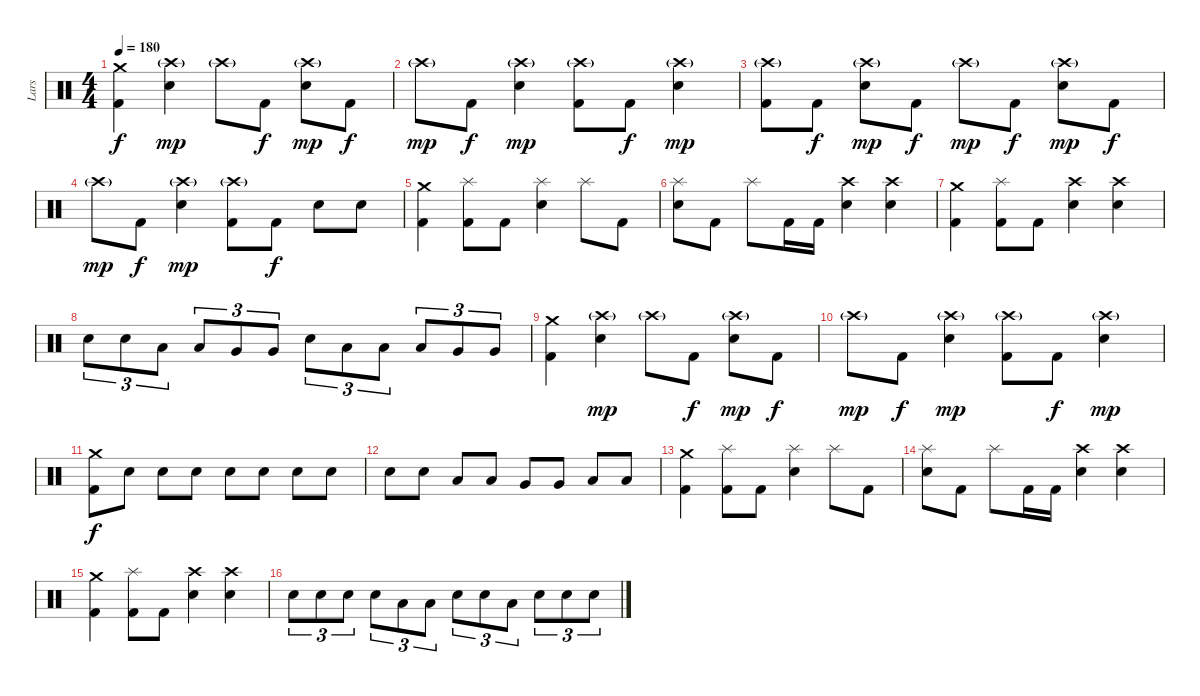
\track ("Lars" "Lars") {instrument percussion}
\staff {score}
\articulation defaults
\ts (4 4)
\tempo 180
\clef neutral
\ks c
("Crash medium (hit)" "Kick (hit) 2").4{dy f} ("Crash high (hit)"{g} "Electric Snare (hit)").4{dy mp} "Crash high (hit)"{g}.8 "Kick (hit) 2".8{dy f} ("Crash high (hit)"{g} "Electric Snare (hit)").8{dy mp} "Kick (hit) 2".8{dy f} |
"Crash high (hit)"{g}.8{dy mp} "Kick (hit) 2".8{dy f} ("Crash high (hit)"{g} "Electric Snare (hit)").4{dy mp} ("Crash high (hit)"{g} "Kick (hit) 2").8 "Kick (hit) 2".8{dy f} ("Crash high (hit)"{g} "Electric Snare (hit)").4{dy mp} |
("Crash high (hit)"{g} "Kick (hit) 2").8 "Kick (hit) 2".8{dy f} ("Crash high (hit)"{g} "Electric Snare (hit)").8{dy mp} "Kick (hit) 2".8{dy f} "Crash high (hit)"{g}.8{dy mp} "Kick (hit) 2".8{dy f} ("Crash high (hit)"{g} "Electric Snare (hit)").8{dy mp} "Kick (hit) 2".8{dy f} |
"Crash high (hit)"{g}.8{dy mp} "Kick (hit) 2".8{dy f} ("Crash high (hit)"{g} "Electric Snare (hit)").4{dy mp} ("Crash high (hit)"{g} "Kick (hit) 2").8 "Kick (hit) 2".8{dy f} "Electric Snare (hit)".8 "Electric Snare (hit)".8 |
("Crash medium (hit)" "Kick (hit) 2").4 ("Splash (hit)" "Kick (hit) 2").8 "Kick (hit) 2".8 ("Splash (hit)" "Electric Snare (hit)").4 "Splash (hit)".8 "Kick (hit) 2".8 |
("Splash (hit)" "Electric Snare (hit)").8 "Kick (hit) 2".8 "Splash (hit)".8 "Kick (hit) 2".16 "Kick (hit) 2".16 ("Crash high (hit)" "Electric Snare (hit)").4 ("Crash high (hit)" "Electric Snare (hit)").4 |
("Crash medium (hit)" "Kick (hit) 2").4 ("Splash (hit)" "Kick (hit) 2").8 "Kick (hit) 2".8 ("Crash high (hit)" "Electric Snare (hit)").4 ("Crash high (hit)" "Electric Snare (hit)").4 |
"Electric Snare (hit)".8{tu (3 2)} "Electric Snare (hit)".8{tu (3 2)} "Low Tom (hit)".8{tu (3 2)} "Low Tom (hit)".8{tu (3 2)} "Very Low Tom (hit)".8{tu (3 2)} "Very Low Tom (hit)".8{tu (3 2)} "Electric Snare (hit)".8{tu (3 2)} "Low Tom (hit)".8{tu (3 2)} "Low Tom (hit)".8{tu (3 2)} "Low Tom (hit)".8{tu (3 2)} "Very Low Tom (hit)".8{tu (3 2)} "Very Low Tom (hit)".8{tu (3 2)} |
("Crash medium (hit)" "Kick (hit) 2").4 ("Crash high (hit)"{g} "Electric Snare (hit)").4{dy mp} "Crash high (hit)"{g}.8 "Kick (hit) 2".8{dy f} ("Crash high (hit)"{g} "Electric Snare (hit)").8{dy mp} "Kick (hit) 2".8{dy f} |
"Crash high (hit)"{g}.8{dy mp} "Kick (hit) 2".8{dy f} ("Crash high (hit)"{g} "Electric Snare (hit)").4{dy mp} ("Crash high (hit)"{g} "Kick (hit) 2").8 "Kick (hit) 2".8{dy f} ("Crash high (hit)"{g} "Electric Snare (hit)").4{dy mp} |
("Crash medium (hit)" "Kick (hit) 2").8{dy f} "Electric Snare (hit)".8 "Electric Snare (hit)".8 "Electric Snare (hit)".8 "Electric Snare (hit)".8 "Electric Snare (hit)".8 "Electric Snare (hit)".8 "Electric Snare (hit)".8 |
"Electric Snare (hit)".8 "Electric Snare (hit)".8 "Low Tom (hit)".8 "Low Tom (hit)".8 "Very Low Tom (hit)".8 "Very Low Tom (hit)".8 "Low Floor Tom (hit)".8 "Low Floor Tom (hit)".8 |
("Crash medium (hit)" "Kick (hit) 2").4 ("Splash (hit)" "Kick (hit) 2").8 "Kick (hit) 2".8 ("Splash (hit)" "Electric Snare (hit)").4 "Splash (hit)".8 "Kick (hit) 2".8 |
("Splash (hit)" "Electric Snare (hit)").8 "Kick (hit) 2".8 "Splash (hit)".8 "Kick (hit) 2".16 "Kick (hit) 2".16 ("Crash high (hit)" "Electric Snare (hit)").4 ("Crash high (hit)" "Electric Snare (hit)").4 |
("Crash medium (hit)" "Kick (hit) 2").4 ("Splash (hit)" "Kick (hit) 2").8 "Kick (hit) 2".8 ("Crash high (hit)" "Electric Snare (hit)").4 ("Crash high (hit)" "Electric Snare (hit)").4 |
"Electric Snare (hit)".8{tu (3 2)} "Electric Snare (hit)".8{tu (3 2)} "Electric Snare (hit)".8{tu (3 2)} "Electric Snare (hit)".8{tu (3 2)} "Low Tom (hit)".8{tu (3 2)} "Low Tom (hit)".8{tu (3 2)} "Electric Snare (hit)".8{tu (3 2)} "Electric Snare (hit)".8{tu (3 2)} "Low Tom (hit)".8{tu (3 2)} "Electric Snare (hit)".8{tu (3 2)} "Electric Snare (hit)".8{tu (3 2)} "Electric Snare (hit)".8{tu (3 2)}
